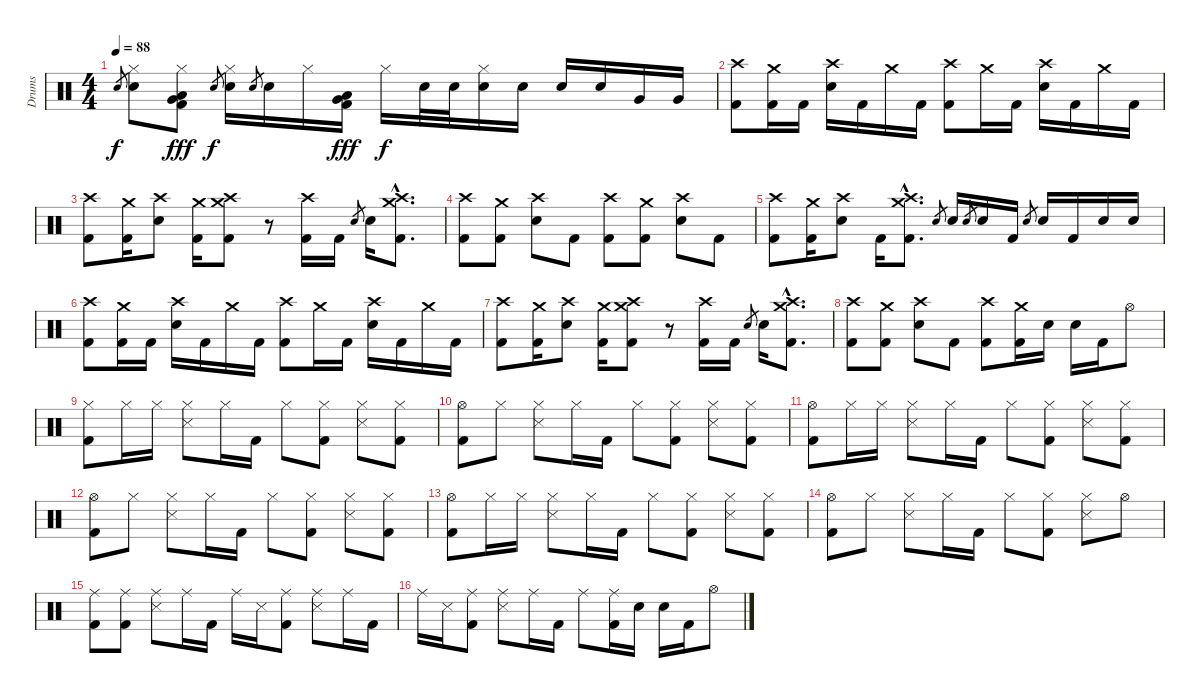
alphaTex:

\track ("Drums" "Drums") {instrument percussion}
\staff {score}
\articulation defaults
\ts (4 4)
\tempo 88
\clef neutral
\ks c "Snare (hit) 2".8{gr dy f}
("Hi-Hat (closed)" "Snare (hit) 2").8 ("Hi-Hat (closed)" "Very Low Tom (hit)" "Low Tom (hit)" "Kick (hit) 2").8{dy fff} "Snare (hit) 2".8{gr dy f} ("Hi-Hat (closed)" "Snare (hit) 2").16 "Snare (hit) 2".8{gr} "Snare (hit) 2".16 "Hi-Hat (closed)".16 ("Very Low Tom (hit)" "Low Tom (hit)" "Kick (hit) 2").16{dy fff} "Hi-Hat (closed)".16{dy f} "Snare (hit) 2".32 "Snare (hit) 2".32 ("Hi-Hat (closed)" "Snare (hit) 2").16 "Snare (hit) 2".16 "Snare (hit) 2".16 "Snare (hit) 2".16 "Very Low Tom (hit)".16 "Very Low Tom (hit)".16 |
("Crash high (hit)" "Kick (hit) 2").8 ("Crash medium (hit)" "Kick (hit) 2").16 "Kick (hit) 2".16 ("Crash high (hit)" "Snare (hit) 2").16 "Kick (hit) 2".16 "Crash medium (hit)".16 "Kick (hit) 2".16 ("Crash high (hit)" "Kick (hit) 2").8 "Crash medium (hit)".16 "Kick (hit) 2".16 ("Crash high (hit)" "Snare (hit) 2").16 "Kick (hit) 2".16 "Crash medium (hit)".16 "Kick (hit) 2".16 |
("Crash high (hit)" "Kick (hit) 2").8 ("Crash medium (hit)" "Kick (hit) 2").16 ("Crash high (hit)" "Snare (hit) 2").8 ("Crash medium (hit)" "Kick (hit) 2").16 ("Crash high (hit)" "Crash medium (hit)" "Kick (hit) 2").8 r.8 ("Crash high (hit)" "Kick (hit) 2").16 "Kick (hit) 2".16 "Snare (hit) 2".8{gr} "Snare (hit) 2".16 ("Crash high (hit)"{hac} "Crash medium (hit)"{hac} "Kick (hit) 2"{hac}).8{d} |
("Crash high (hit)" "Kick (hit) 2").8 ("Crash medium (hit)" "Kick (hit) 2").8 ("Crash high (hit)" "Snare (hit) 2").8 "Kick (hit) 2".8 ("Crash high (hit)" "Kick (hit) 2").8 ("Crash medium (hit)" "Kick (hit) 2").8 ("Crash high (hit)" "Snare (hit) 2").8 "Kick (hit) 2".8 |
("Crash high (hit)" "Kick (hit) 2").8 ("Crash medium (hit)" "Kick (hit) 2").16 ("Crash high (hit)" "Snare (hit) 2").8 "Kick (hit) 2".16 ("Crash high (hit)"{hac} "Crash medium (hit)"{hac} "Kick (hit) 2"{hac}).8{d} "Snare (hit) 2".8{gr} "Snare (hit) 2".16 "Snare (hit) 2".8{gr} "Snare (hit) 2".16 "Kick (hit) 2".16 "Snare (hit) 2".8{gr} "Snare (hit) 2".16 "Kick (hit) 2".16 "Snare (hit) 2".16 "Snare (hit) 2".16 |
("Crash high (hit)" "Kick (hit) 2").8 ("Crash medium (hit)" "Kick (hit) 2").16 "Kick (hit) 2".16 ("Crash high (hit)" "Snare (hit) 2").16 "Kick (hit) 2".16 "Crash medium (hit)".16 "Kick (hit) 2".16 ("Crash high (hit)" "Kick (hit) 2").8 "Crash medium (hit)".16 "Kick (hit) 2".16 ("Crash high (hit)" "Snare (hit) 2").16 "Kick (hit) 2".16 "Crash medium (hit)".16 "Kick (hit) 2".16 |
("Crash high (hit)" "Kick (hit) 2").8 ("Crash medium (hit)" "Kick (hit) 2").16 ("Crash high (hit)" "Snare (hit) 2").8 ("Crash medium (hit)" "Kick (hit) 2").16 ("Crash high (hit)" "Crash medium (hit)" "Kick (hit) 2").8 r.8 ("Crash high (hit)" "Kick (hit) 2").16 "Kick (hit) 2".16 "Snare (hit) 2".8{gr} "Snare (hit) 2".16 ("Crash high (hit)"{hac} "Crash medium (hit)"{hac} "Kick (hit) 2"{hac}).8{d} |
("Crash high (hit)" "Kick (hit) 2").8 ("Crash medium (hit)" "Kick (hit) 2").8 ("Crash high (hit)" "Snare (hit) 2").8 "Kick (hit) 2".8 ("Crash high (hit)" "Kick (hit) 2").8 ("Crash medium (hit)" "Kick (hit) 2").16 "Snare (hit) 2".16 "Snare (hit) 2".16 "Kick (hit) 2".16 "Hi-Hat (open)".8 |
("Hi-Hat (closed)" "Kick (hit) 2").8 "Hi-Hat (closed)".16 "Hi-Hat (closed)".16 ("Hi-Hat (closed)" "Snare (side stick) 3").8 "Hi-Hat (closed)".16 "Kick (hit) 2".16 "Hi-Hat (closed)".8 ("Hi-Hat (closed)" "Kick (hit) 2").8 ("Hi-Hat (closed)" "Snare (side stick) 3").8 ("Hi-Hat (closed)" "Kick (hit) 2").8 |
("Hi-Hat (open)" "Kick (hit) 2").8 "Hi-Hat (closed)".8 ("Hi-Hat (closed)" "Snare (side stick) 3").8 "Hi-Hat (closed)".16 "Kick (hit) 2".16 "Hi-Hat (closed)".8 ("Hi-Hat (closed)" "Kick (hit) 2").8 ("Hi-Hat (closed)" "Snare (side stick) 3").8 ("Hi-Hat (closed)" "Kick (hit) 2").8 |
("Hi-Hat (open)" "Kick (hit) 2").8 "Hi-Hat (closed)".16 "Hi-Hat (closed)".16 ("Hi-Hat (closed)" "Snare (side stick) 3").8 "Hi-Hat (closed)".16 "Kick (hit) 2".16 "Hi-Hat (closed)".8 ("Hi-Hat (closed)" "Kick (hit) 2").8 ("Hi-Hat (closed)" "Snare (side stick) 3").8 ("Hi-Hat (closed)" "Kick (hit) 2").8 |
("Hi-Hat (open)" "Kick (hit) 2").8 "Hi-Hat (closed)".8 ("Hi-Hat (closed)" "Snare (side stick) 3").8 "Hi-Hat (closed)".16 "Kick (hit) 2".16 "Hi-Hat (closed)".8 ("Hi-Hat (closed)" "Kick (hit) 2").8 ("Hi-Hat (closed)" "Snare (side stick) 3").8 ("Hi-Hat (closed)" "Kick (hit) 2").8 |
("Hi-Hat (open)" "Kick (hit) 2").8 "Hi-Hat (closed)".16 "Hi-Hat (closed)".16 ("Hi-Hat (closed)" "Snare (side stick) 3").8 "Hi-Hat (closed)".16 "Kick (hit) 2".16 "Hi-Hat (closed)".8 ("Hi-Hat (closed)" "Kick (hit) 2").8 ("Hi-Hat (closed)" "Snare (side stick) 3").8 ("Hi-Hat (closed)" "Kick (hit) 2").8 |
("Hi-Hat (open)" "Kick (hit) 2").8 "Hi-Hat (closed)".8 ("Hi-Hat (closed)" "Snare (side stick) 3").8 "Hi-Hat (closed)".16 "Kick (hit) 2".16 "Hi-Hat (closed)".8 ("Hi-Hat (closed)" "Kick (hit) 2").8 ("Hi-Hat (closed)" "Snare (side stick) 3").8 "Hi-Hat (open)".8 |
("Ride (middle)" "Kick (hit) 2").8 ("Ride (middle)" "Kick (hit) 2").8 ("Ride (middle)" "Snare (side stick) 3").8 "Ride (middle)".16 "Kick (hit) 2".16 "Ride (middle)".16 "Snare (side stick) 3".16 ("Ride (middle)" "Kick (hit) 2").8 ("Ride (middle)" "Snare (side stick) 3").8 "Ride (middle)".16 "Kick (hit) 2".16 |
"Ride (middle)".16 "Snare (side stick) 3".16 ("Ride (middle)" "Kick (hit) 2").8 ("Ride (middle)" "Snare (side stick) 3").8 "Ride (middle)".16 "Kick (hit) 2".16 "Ride (middle)".8 ("Ride (middle)" "Kick (hit) 2").16 "Snare (hit) 2".16 "Snare (hit) 2".16 "Kick (hit) 2".16 "Hi-Hat (open)".8
